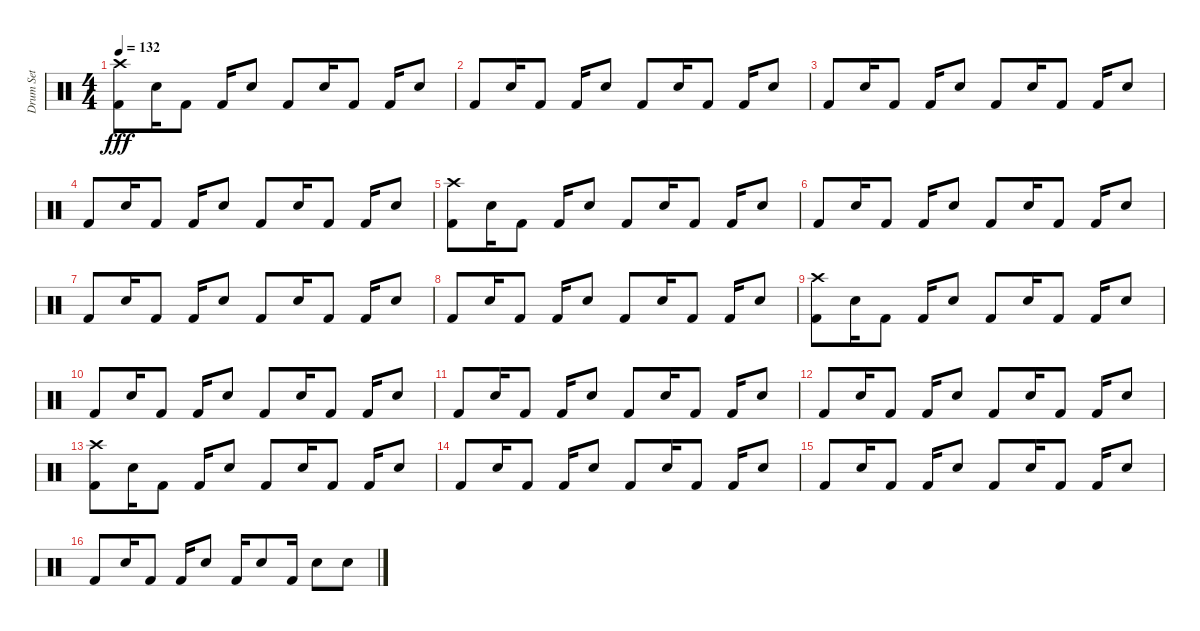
\track ("Drum Set" "Drum Set") {instrument percussion}
\staff {score}
\articulation defaults
\ts (4 4)
\tempo 132
\clef neutral
\ks c
("Kick (hit) 2" "Crash high (hit)").8{dy fff} "Electric Snare (hit)".16 "Kick (hit) 2".8 "Kick (hit) 2".16 "Electric Snare (hit)".8 "Kick (hit) 2".8 "Electric Snare (hit)".16 "Kick (hit) 2".8 "Kick (hit) 2".16 "Electric Snare (hit)".8 |
"Kick (hit) 2".8 "Electric Snare (hit)".16 "Kick (hit) 2".8 "Kick (hit) 2".16 "Electric Snare (hit)".8 "Kick (hit) 2".8 "Electric Snare (hit)".16 "Kick (hit) 2".8 "Kick (hit) 2".16 "Electric Snare (hit)".8 |
"Kick (hit) 2".8 "Electric Snare (hit)".16 "Kick (hit) 2".8 "Kick (hit) 2".16 "Electric Snare (hit)".8 "Kick (hit) 2".8 "Electric Snare (hit)".16 "Kick (hit) 2".8 "Kick (hit) 2".16 "Electric Snare (hit)".8 |
"Kick (hit) 2".8 "Electric Snare (hit)".16 "Kick (hit) 2".8 "Kick (hit) 2".16 "Electric Snare (hit)".8 "Kick (hit) 2".8 "Electric Snare (hit)".16 "Kick (hit) 2".8 "Kick (hit) 2".16 "Electric Snare (hit)".8 |
("Kick (hit) 2" "Crash high (hit)").8 "Electric Snare (hit)".16 "Kick (hit) 2".8 "Kick (hit) 2".16 "Electric Snare (hit)".8 "Kick (hit) 2".8 "Electric Snare (hit)".16 "Kick (hit) 2".8 "Kick (hit) 2".16 "Electric Snare (hit)".8 |
"Kick (hit) 2".8 "Electric Snare (hit)".16 "Kick (hit) 2".8 "Kick (hit) 2".16 "Electric Snare (hit)".8 "Kick (hit) 2".8 "Electric Snare (hit)".16 "Kick (hit) 2".8 "Kick (hit) 2".16 "Electric Snare (hit)".8 |
"Kick (hit) 2".8 "Electric Snare (hit)".16 "Kick (hit) 2".8 "Kick (hit) 2".16 "Electric Snare (hit)".8 "Kick (hit) 2".8 "Electric Snare (hit)".16 "Kick (hit) 2".8 "Kick (hit) 2".16 "Electric Snare (hit)".8 |
"Kick (hit) 2".8 "Electric Snare (hit)".16 "Kick (hit) 2".8 "Kick (hit) 2".16 "Electric Snare (hit)".8 "Kick (hit) 2".8 "Electric Snare (hit)".16 "Kick (hit) 2".8 "Kick (hit) 2".16 "Electric Snare (hit)".8 |
("Kick (hit) 2" "Crash high (hit)").8 "Electric Snare (hit)".16 "Kick (hit) 2".8 "Kick (hit) 2".16 "Electric Snare (hit)".8 "Kick (hit) 2".8 "Electric Snare (hit)".16 "Kick (hit) 2".8 "Kick (hit) 2".16 "Electric Snare (hit)".8 |
"Kick (hit) 2".8 "Electric Snare (hit)".16 "Kick (hit) 2".8 "Kick (hit) 2".16 "Electric Snare (hit)".8 "Kick (hit) 2".8 "Electric Snare (hit)".16 "Kick (hit) 2".8 "Kick (hit) 2".16 "Electric Snare (hit)".8 |
"Kick (hit) 2".8 "Electric Snare (hit)".16 "Kick (hit) 2".8 "Kick (hit) 2".16 "Electric Snare (hit)".8 "Kick (hit) 2".8 "Electric Snare (hit)".16 "Kick (hit) 2".8 "Kick (hit) 2".16 "Electric Snare (hit)".8 |
"Kick (hit) 2".8 "Electric Snare (hit)".16 "Kick (hit) 2".8 "Kick (hit) 2".16 "Electric Snare (hit)".8 "Kick (hit) 2".8 "Electric Snare (hit)".16 "Kick (hit) 2".8 "Kick (hit) 2".16 "Electric Snare (hit)".8 |
("Kick (hit) 2" "Crash high (hit)").8 "Electric Snare (hit)".16 "Kick (hit) 2".8 "Kick (hit) 2".16 "Electric Snare (hit)".8 "Kick (hit) 2".8 "Electric Snare (hit)".16 "Kick (hit) 2".8 "Kick (hit) 2".16 "Electric Snare (hit)".8 |
"Kick (hit) 2".8 "Electric Snare (hit)".16 "Kick (hit) 2".8 "Kick (hit) 2".16 "Electric Snare (hit)".8 "Kick (hit) 2".8 "Electric Snare (hit)".16 "Kick (hit) 2".8 "Kick (hit) 2".16 "Electric Snare (hit)".8 |
"Kick (hit) 2".8 "Electric Snare (hit)".16 "Kick (hit) 2".8 "Kick (hit) 2".16 "Electric Snare (hit)".8 "Kick (hit) 2".8 "Electric Snare (hit)".16 "Kick (hit) 2".8 "Kick (hit) 2".16 "Electric Snare (hit)".8 |
"Kick (hit) 2".8 "Electric Snare (hit)".16 "Kick (hit) 2".8 "Kick (hit) 2".16 "Electric Snare (hit)".8 "Kick (hit) 2".16 "Electric Snare (hit)".8 "Kick (hit) 2".16 "Electric Snare (hit)".8 "Electric Snare (hit)".8
